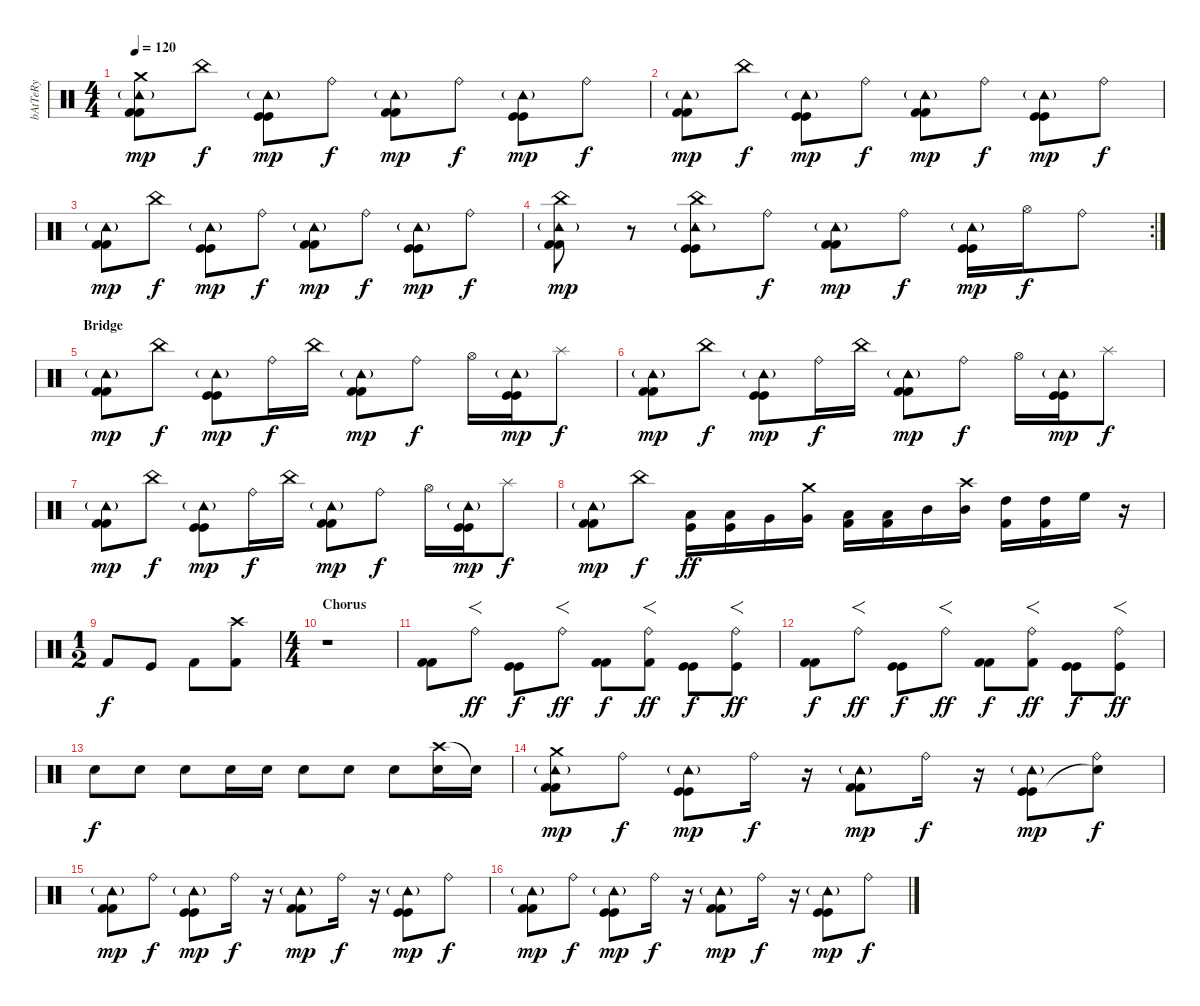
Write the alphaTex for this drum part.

\track ("bAtTeRy" "bAtTeRy") {instrument percussion}
\staff {score}
\articulation defaults
\ts (4 4)
\tempo 120
\clef neutral
\ks c
("Tambourine (hit)"{g} "Crash medium (hit)" "Kick (hit) 2" "Kick (hit) 2").8{dy mp} "China (hit)".8{dy f} ("Tambourine (hit)"{g} "Kick (hit)" "Kick (hit)").8{dy mp} "Ride (bell)".8{dy f} ("Tambourine (hit)"{g} "Kick (hit) 2" "Kick (hit) 2").8{dy mp} "Ride (bell)".8{dy f} ("Tambourine (hit)"{g} "Kick (hit)" "Kick (hit)").8{dy mp} "Ride (bell)".8{dy f} |
("Tambourine (hit)"{g} "Kick (hit) 2" "Kick (hit) 2").8{dy mp} "China (hit)".8{dy f} ("Tambourine (hit)"{g} "Kick (hit)" "Kick (hit)").8{dy mp} "Ride (bell)".8{dy f} ("Tambourine (hit)"{g} "Kick (hit) 2" "Kick (hit) 2").8{dy mp} "Ride (bell)".8{dy f} ("Tambourine (hit)"{g} "Kick (hit)" "Kick (hit)").8{dy mp} "Ride (bell)".8{dy f} |
("Tambourine (hit)"{g} "Kick (hit) 2" "Kick (hit) 2").8{dy mp} "China (hit)".8{dy f} ("Tambourine (hit)"{g} "Kick (hit)" "Kick (hit)").8{dy mp} "Ride (bell)".8{dy f} ("Tambourine (hit)"{g} "Kick (hit) 2" "Kick (hit) 2").8{dy mp} "Ride (bell)".8{dy f} ("Tambourine (hit)"{g} "Kick (hit)" "Kick (hit)").8{dy mp} "Ride (bell)".8{dy f} |
\rc 2
("Tambourine (hit)"{g} "China (hit)" "Kick (hit) 2" "Kick (hit) 2").8{dy mp} r.8 ("Tambourine (hit)"{g} "China (hit)" "Kick (hit)" "Kick (hit)").8 "Ride (bell)".8{dy f} ("Tambourine (hit)"{g} "Kick (hit) 2" "Kick (hit) 2").8{dy mp} "Ride (bell)".8{dy f} ("Tambourine (hit)"{g} "Kick (hit)" "Kick (hit)").16{dy mp} "Hi-Hat (open)".16{dy f} "Ride (bell)".8 |
\section ("" "Bridge")
("Tambourine (hit)"{g} "Kick (hit) 2" "Kick (hit) 2").8{dy mp} "China (hit)".8{dy f} ("Tambourine (hit)"{g} "Kick (hit)" "Kick (hit)").8{dy mp} "Ride (bell)".16{dy f} "China (hit)".16 ("Tambourine (hit)"{g} "Kick (hit) 2" "Kick (hit) 2").8{dy mp} "Ride (bell)".8{dy f} "Hi-Hat (open)".16 ("Tambourine (hit)"{g} "Kick (hit)" "Kick (hit)").16{dy mp} "Splash (hit)".8{dy f} |
("Tambourine (hit)"{g} "Kick (hit) 2" "Kick (hit) 2").8{dy mp} "China (hit)".8{dy f} ("Tambourine (hit)"{g} "Kick (hit)" "Kick (hit)").8{dy mp} "Ride (bell)".16{dy f} "China (hit)".16 ("Tambourine (hit)"{g} "Kick (hit) 2" "Kick (hit) 2").8{dy mp} "Ride (bell)".8{dy f} "Hi-Hat (open)".16 ("Tambourine (hit)"{g} "Kick (hit)" "Kick (hit)").16{dy mp} "Splash (hit)".8{dy f} |
("Tambourine (hit)"{g} "Kick (hit) 2" "Kick (hit) 2").8{dy mp} "China (hit)".8{dy f} ("Tambourine (hit)"{g} "Kick (hit)" "Kick (hit)").8{dy mp} "Ride (bell)".16{dy f} "China (hit)".16 ("Tambourine (hit)"{g} "Kick (hit) 2" "Kick (hit) 2").8{dy mp} "Ride (bell)".8{dy f} "Hi-Hat (open)".16 ("Tambourine (hit)"{g} "Kick (hit)" "Kick (hit)").16{dy mp} "Splash (hit)".8{dy f} |
("Tambourine (hit)"{g} "Kick (hit) 2" "Kick (hit) 2").8{dy mp} "China (hit)".8{dy f} ("Kick (hit)" "Low Floor Tom (hit)").16{dy ff} ("Kick (hit)" "Low Floor Tom (hit)").16 "Very Low Tom (hit)".16 ("Crash medium (hit)" "Very Low Tom (hit)").16 ("Kick (hit) 2" "Low Tom (hit)").16 ("Kick (hit) 2" "Low Tom (hit)").16 "Mid Tom (hit)".16 ("Crash high (hit)" "Mid Tom (hit)").16 ("Kick (hit) 2" "High Tom (hit)").16 ("Kick (hit) 2" "High Tom (hit)").16 "High Floor Tom (hit)".16 r.16 |
\ts (1 2)
"Kick (hit) 2".8{dy f} "Kick (hit)".8 "Kick (hit) 2".8 ("Crash high (hit)" "Kick (hit) 2").8 |
\ts (4 4)
\section ("" "Chorus")
r.1 |
("Kick (hit) 2" "Kick (hit) 2").8 "Ride (bell)".8{f dy ff} ("Kick (hit)" "Kick (hit)").8{dy f} "Ride (bell)".8{f dy ff} ("Kick (hit) 2" "Kick (hit) 2").8{dy f} ("Ride (bell)" "Kick (hit) 2").8{f dy ff} ("Kick (hit)" "Kick (hit)").8{dy f} ("Ride (bell)" "Kick (hit)").8{f dy ff} |
("Kick (hit) 2" "Kick (hit) 2").8{dy f} "Ride (bell)".8{f dy ff} ("Kick (hit)" "Kick (hit)").8{dy f} "Ride (bell)".8{f dy ff} ("Kick (hit) 2" "Kick (hit) 2").8{dy f} ("Ride (bell)" "Kick (hit) 2").8{f dy ff} ("Kick (hit)" "Kick (hit)").8{dy f} ("Ride (bell)" "Kick (hit)").8{f dy ff} |
"Electric Snare (hit)".8{dy f} "Electric Snare (hit)".8 "Snare (hit) 2".8 "Electric Snare (hit)".16 "Electric Snare (hit)".16 "Electric Snare (hit)".8 "Electric Snare (hit)".8 "Electric Snare (hit)".8 ("Crash high (hit)" "Snare (hit) 2").16 "Snare (hit)"{t}.16 |
("Tambourine (hit)"{g} "Crash medium (hit)" "Kick (hit) 2" "Kick (hit) 2").8{dy mp} "Ride (bell)".8{dy f} ("Tambourine (hit)"{g} "Kick (hit)" "Kick (hit)").8{dy mp} "Ride (bell)".16{dy f} r.16 ("Tambourine (hit)"{g} "Kick (hit) 2" "Kick (hit) 2").8{dy mp} "Ride (bell)".16{dy f} r.16 ("Tambourine (hit)"{g} "Kick (hit)" "Kick (hit)").8{dy mp} ("Ride (bell)" "Snare (hit)"{t}).8{dy f} |
("Tambourine (hit)"{g} "Kick (hit) 2" "Kick (hit) 2").8{dy mp} "Ride (bell)".8{dy f} ("Tambourine (hit)"{g} "Kick (hit)" "Kick (hit)").8{dy mp} "Ride (bell)".16{dy f} r.16 ("Tambourine (hit)"{g} "Kick (hit) 2" "Kick (hit) 2").8{dy mp} "Ride (bell)".16{dy f} r.16 ("Tambourine (hit)"{g} "Kick (hit)" "Kick (hit)").8{dy mp} "Ride (bell)".8{dy f} |
("Tambourine (hit)"{g} "Kick (hit) 2" "Kick (hit) 2").8{dy mp} "Ride (bell)".8{dy f} ("Tambourine (hit)"{g} "Kick (hit)" "Kick (hit)").8{dy mp} "Ride (bell)".16{dy f} r.16 ("Tambourine (hit)"{g} "Kick (hit) 2" "Kick (hit) 2").8{dy mp} "Ride (bell)".16{dy f} r.16 ("Tambourine (hit)"{g} "Kick (hit)" "Kick (hit)").8{dy mp} "Ride (bell)".8{dy f}
